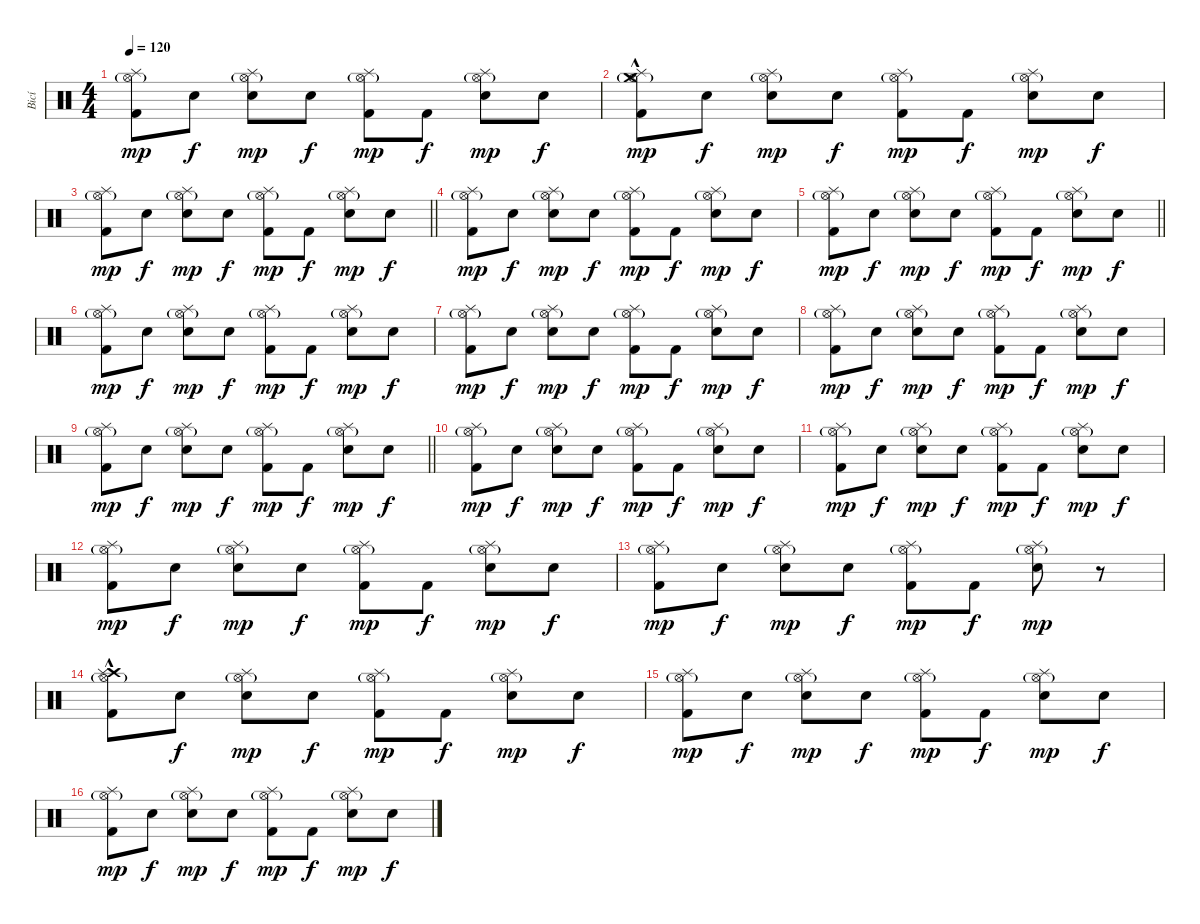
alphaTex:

\track ("Bicí" "Bicí") {instrument percussion}
\staff {score}
\articulation defaults
\ts (4 4)
\tempo 120
\clef neutral
\ks c
("Splash (hit)" "Hi-Hat (open)"{g} "Kick (hit) 2").8{dy mp} "Snare (hit)".8{dy f} ("Splash (hit)" "Hi-Hat (open)"{g} "Electric Snare (hit)").8{dy mp} "Snare (hit)".8{dy f} ("Splash (hit)" "Hi-Hat (open)"{g} "Kick (hit) 2").8{dy mp} "Kick (hit) 2".8{dy f} ("Splash (hit)" "Hi-Hat (open)"{g} "Electric Snare (hit)").8{dy mp} "Snare (hit)".8{dy f} |
("Crash medium (hit)"{hac} "Splash (hit)" "Hi-Hat (open)"{g} "Kick (hit) 2").8{dy mp} "Snare (hit)".8{dy f} ("Splash (hit)" "Hi-Hat (open)"{g} "Electric Snare (hit)").8{dy mp} "Snare (hit)".8{dy f} ("Splash (hit)" "Hi-Hat (open)"{g} "Kick (hit) 2").8{dy mp} "Kick (hit) 2".8{dy f} ("Splash (hit)" "Hi-Hat (open)"{g} "Electric Snare (hit)").8{dy mp} "Snare (hit)".8{dy f} |
\barLineRight lightlight
("Splash (hit)" "Hi-Hat (open)"{g} "Kick (hit) 2").8{dy mp} "Snare (hit)".8{dy f} ("Splash (hit)" "Hi-Hat (open)"{g} "Electric Snare (hit)").8{dy mp} "Snare (hit)".8{dy f} ("Splash (hit)" "Hi-Hat (open)"{g} "Kick (hit) 2").8{dy mp} "Kick (hit) 2".8{dy f} ("Splash (hit)" "Hi-Hat (open)"{g} "Electric Snare (hit)").8{dy mp} "Snare (hit)".8{dy f} |
("Splash (hit)" "Hi-Hat (open)"{g} "Kick (hit) 2").8{dy mp} "Snare (hit)".8{dy f} ("Splash (hit)" "Hi-Hat (open)"{g} "Electric Snare (hit)").8{dy mp} "Snare (hit)".8{dy f} ("Splash (hit)" "Hi-Hat (open)"{g} "Kick (hit) 2").8{dy mp} "Kick (hit) 2".8{dy f} ("Splash (hit)" "Hi-Hat (open)"{g} "Electric Snare (hit)").8{dy mp} "Snare (hit)".8{dy f} |
\barLineRight lightlight
("Splash (hit)" "Hi-Hat (open)"{g} "Kick (hit) 2").8{dy mp} "Snare (hit)".8{dy f} ("Splash (hit)" "Hi-Hat (open)"{g} "Electric Snare (hit)").8{dy mp} "Snare (hit)".8{dy f} ("Splash (hit)" "Hi-Hat (open)"{g} "Kick (hit) 2").8{dy mp} "Kick (hit) 2".8{dy f} ("Splash (hit)" "Hi-Hat (open)"{g} "Electric Snare (hit)").8{dy mp} "Snare (hit)".8{dy f} |
("Splash (hit)" "Hi-Hat (open)"{g} "Kick (hit) 2").8{dy mp} "Snare (hit)".8{dy f} ("Splash (hit)" "Hi-Hat (open)"{g} "Electric Snare (hit)").8{dy mp} "Snare (hit)".8{dy f} ("Splash (hit)" "Hi-Hat (open)"{g} "Kick (hit) 2").8{dy mp} "Kick (hit) 2".8{dy f} ("Splash (hit)" "Hi-Hat (open)"{g} "Electric Snare (hit)").8{dy mp} "Snare (hit)".8{dy f} |
("Splash (hit)" "Hi-Hat (open)"{g} "Kick (hit) 2").8{dy mp} "Snare (hit)".8{dy f} ("Splash (hit)" "Hi-Hat (open)"{g} "Electric Snare (hit)").8{dy mp} "Snare (hit)".8{dy f} ("Splash (hit)" "Hi-Hat (open)"{g} "Kick (hit) 2").8{dy mp} "Kick (hit) 2".8{dy f} ("Splash (hit)" "Hi-Hat (open)"{g} "Electric Snare (hit)").8{dy mp} "Snare (hit)".8{dy f} |
("Splash (hit)" "Hi-Hat (open)"{g} "Kick (hit) 2").8{dy mp} "Snare (hit)".8{dy f} ("Splash (hit)" "Hi-Hat (open)"{g} "Electric Snare (hit)").8{dy mp} "Snare (hit)".8{dy f} ("Splash (hit)" "Hi-Hat (open)"{g} "Kick (hit) 2").8{dy mp} "Kick (hit) 2".8{dy f} ("Splash (hit)" "Hi-Hat (open)"{g} "Electric Snare (hit)").8{dy mp} "Snare (hit)".8{dy f} |
\barLineRight lightlight
("Splash (hit)" "Hi-Hat (open)"{g} "Kick (hit) 2").8{dy mp} "Snare (hit)".8{dy f} ("Splash (hit)" "Hi-Hat (open)"{g} "Electric Snare (hit)").8{dy mp} "Snare (hit)".8{dy f} ("Splash (hit)" "Hi-Hat (open)"{g} "Kick (hit) 2").8{dy mp} "Kick (hit) 2".8{dy f} ("Splash (hit)" "Hi-Hat (open)"{g} "Electric Snare (hit)").8{dy mp} "Snare (hit)".8{dy f} |
("Splash (hit)" "Hi-Hat (open)"{g} "Kick (hit) 2").8{dy mp} "Snare (hit)".8{dy f} ("Splash (hit)" "Hi-Hat (open)"{g} "Electric Snare (hit)").8{dy mp} "Snare (hit)".8{dy f} ("Splash (hit)" "Hi-Hat (open)"{g} "Kick (hit) 2").8{dy mp} "Kick (hit) 2".8{dy f} ("Splash (hit)" "Hi-Hat (open)"{g} "Electric Snare (hit)").8{dy mp} "Snare (hit)".8{dy f} |
("Splash (hit)" "Hi-Hat (open)"{g} "Kick (hit) 2").8{dy mp} "Snare (hit)".8{dy f} ("Splash (hit)" "Hi-Hat (open)"{g} "Electric Snare (hit)").8{dy mp} "Snare (hit)".8{dy f} ("Splash (hit)" "Hi-Hat (open)"{g} "Kick (hit) 2").8{dy mp} "Kick (hit) 2".8{dy f} ("Splash (hit)" "Hi-Hat (open)"{g} "Electric Snare (hit)").8{dy mp} "Snare (hit)".8{dy f} |
("Splash (hit)" "Hi-Hat (open)"{g} "Kick (hit) 2").8{dy mp} "Snare (hit)".8{dy f} ("Splash (hit)" "Hi-Hat (open)"{g} "Electric Snare (hit)").8{dy mp} "Snare (hit)".8{dy f} ("Splash (hit)" "Hi-Hat (open)"{g} "Kick (hit) 2").8{dy mp} "Kick (hit) 2".8{dy f} ("Splash (hit)" "Hi-Hat (open)"{g} "Electric Snare (hit)").8{dy mp} "Snare (hit)".8{dy f} |
("Splash (hit)" "Hi-Hat (open)"{g} "Kick (hit) 2").8{dy mp} "Snare (hit)".8{dy f} ("Splash (hit)" "Hi-Hat (open)"{g} "Electric Snare (hit)").8{dy mp} "Snare (hit)".8{dy f} ("Splash (hit)" "Hi-Hat (open)"{g} "Kick (hit) 2").8{dy mp} "Kick (hit) 2".8{dy f} ("Splash (hit)" "Hi-Hat (open)"{g} "Electric Snare (hit)").8{dy mp} r.8 |
("Crash high (hit)"{hac} "Splash (hit)" "Hi-Hat (open)"{g} "Kick (hit) 2").8 "Snare (hit)".8{dy f} ("Splash (hit)" "Hi-Hat (open)"{g} "Electric Snare (hit)").8{dy mp} "Snare (hit)".8{dy f} ("Splash (hit)" "Hi-Hat (open)"{g} "Kick (hit) 2").8{dy mp} "Kick (hit) 2".8{dy f} ("Splash (hit)" "Hi-Hat (open)"{g} "Electric Snare (hit)").8{dy mp} "Snare (hit)".8{dy f} |
("Splash (hit)" "Hi-Hat (open)"{g} "Kick (hit) 2").8{dy mp} "Snare (hit)".8{dy f} ("Splash (hit)" "Hi-Hat (open)"{g} "Electric Snare (hit)").8{dy mp} "Snare (hit)".8{dy f} ("Splash (hit)" "Hi-Hat (open)"{g} "Kick (hit) 2").8{dy mp} "Kick (hit) 2".8{dy f} ("Splash (hit)" "Hi-Hat (open)"{g} "Electric Snare (hit)").8{dy mp} "Snare (hit)".8{dy f} |
("Splash (hit)" "Hi-Hat (open)"{g} "Kick (hit) 2").8{dy mp} "Snare (hit)".8{dy f} ("Splash (hit)" "Hi-Hat (open)"{g} "Electric Snare (hit)").8{dy mp} "Snare (hit)".8{dy f} ("Splash (hit)" "Hi-Hat (open)"{g} "Kick (hit) 2").8{dy mp} "Kick (hit) 2".8{dy f} ("Splash (hit)" "Hi-Hat (open)"{g} "Electric Snare (hit)").8{dy mp} "Snare (hit)".8{dy f}
